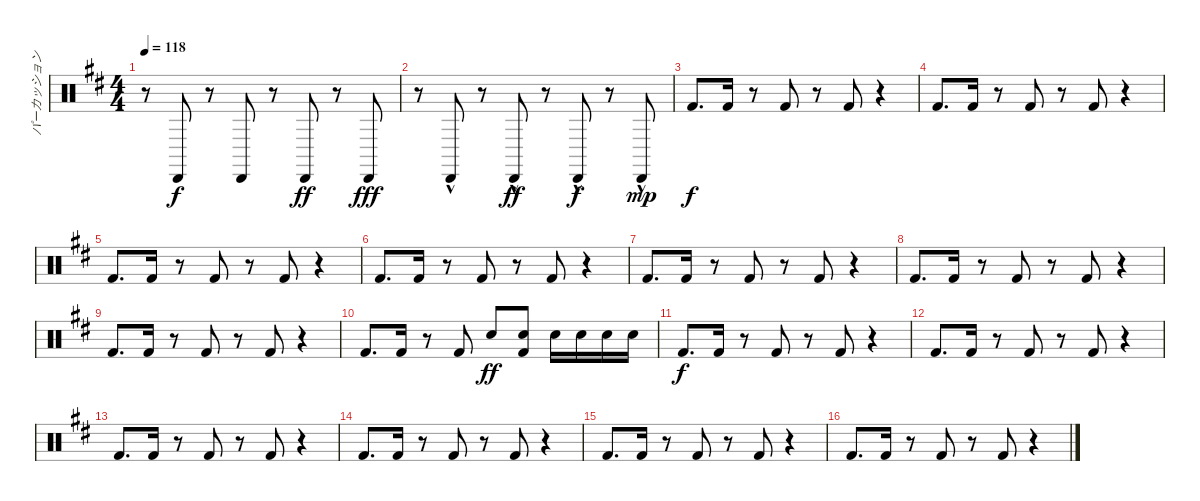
\track ("パーカッション" "パーカッション") {instrument percussion}
\staff {score}
\articulation defaults
\ts (4 4)
\tempo 118
\clef neutral
\ks d
r.8{dy f} "Cabasa (hit)".8 r.8 "Cabasa (hit)".8 r.8 "Cabasa (hit)".8{dy ff} r.8 "Cabasa (hit)".8{dy fff} |
r.8 "Cabasa (hit)"{hac}.8 r.8 "Cabasa (hit)"{hac}.8{dy ff} r.8 "Cabasa (hit)"{hac}.8{dy f} r.8 "Cabasa (hit)"{hac}.8{dy mp} |
"Kick (hit) 2".8{d dy f} "Kick (hit) 2".16 r.8 "Kick (hit) 2".8 r.8 "Kick (hit) 2".8 r.4 |
"Kick (hit) 2".8{d} "Kick (hit) 2".16 r.8 "Kick (hit) 2".8 r.8 "Kick (hit) 2".8 r.4 |
"Kick (hit) 2".8{d} "Kick (hit) 2".16 r.8 "Kick (hit) 2".8 r.8 "Kick (hit) 2".8 r.4 |
"Kick (hit) 2".8{d} "Kick (hit) 2".16 r.8 "Kick (hit) 2".8 r.8 "Kick (hit) 2".8 r.4 |
"Kick (hit) 2".8{d} "Kick (hit) 2".16 r.8 "Kick (hit) 2".8 r.8 "Kick (hit) 2".8 r.4 |
"Kick (hit) 2".8{d} "Kick (hit) 2".16 r.8 "Kick (hit) 2".8 r.8 "Kick (hit) 2".8 r.4 |
"Kick (hit) 2".8{d} "Kick (hit) 2".16 r.8 "Kick (hit) 2".8 r.8 "Kick (hit) 2".8 r.4 |
"Kick (hit) 2".8{d} "Kick (hit) 2".16 r.8 "Kick (hit) 2".8 "Electric Snare (hit)".8{dy ff} ("Electric Snare (hit)" "Kick (hit) 2").8 "Electric Snare (hit)".16 "Electric Snare (hit)".16{beam merge} "Electric Snare (hit)".16 "Electric Snare (hit)".16 |
"Kick (hit) 2".8{d dy f} "Kick (hit) 2".16 r.8 "Kick (hit) 2".8 r.8 "Kick (hit) 2".8 r.4 |
"Kick (hit) 2".8{d} "Kick (hit) 2".16 r.8 "Kick (hit) 2".8 r.8 "Kick (hit) 2".8 r.4 |
"Kick (hit) 2".8{d} "Kick (hit) 2".16 r.8 "Kick (hit) 2".8 r.8 "Kick (hit) 2".8 r.4 |
"Kick (hit) 2".8{d} "Kick (hit) 2".16 r.8 "Kick (hit) 2".8 r.8 "Kick (hit) 2".8 r.4 |
"Kick (hit) 2".8{d} "Kick (hit) 2".16 r.8 "Kick (hit) 2".8 r.8 "Kick (hit) 2".8 r.4 |
"Kick (hit) 2".8{d} "Kick (hit) 2".16 r.8 "Kick (hit) 2".8 r.8 "Kick (hit) 2".8 r.4
